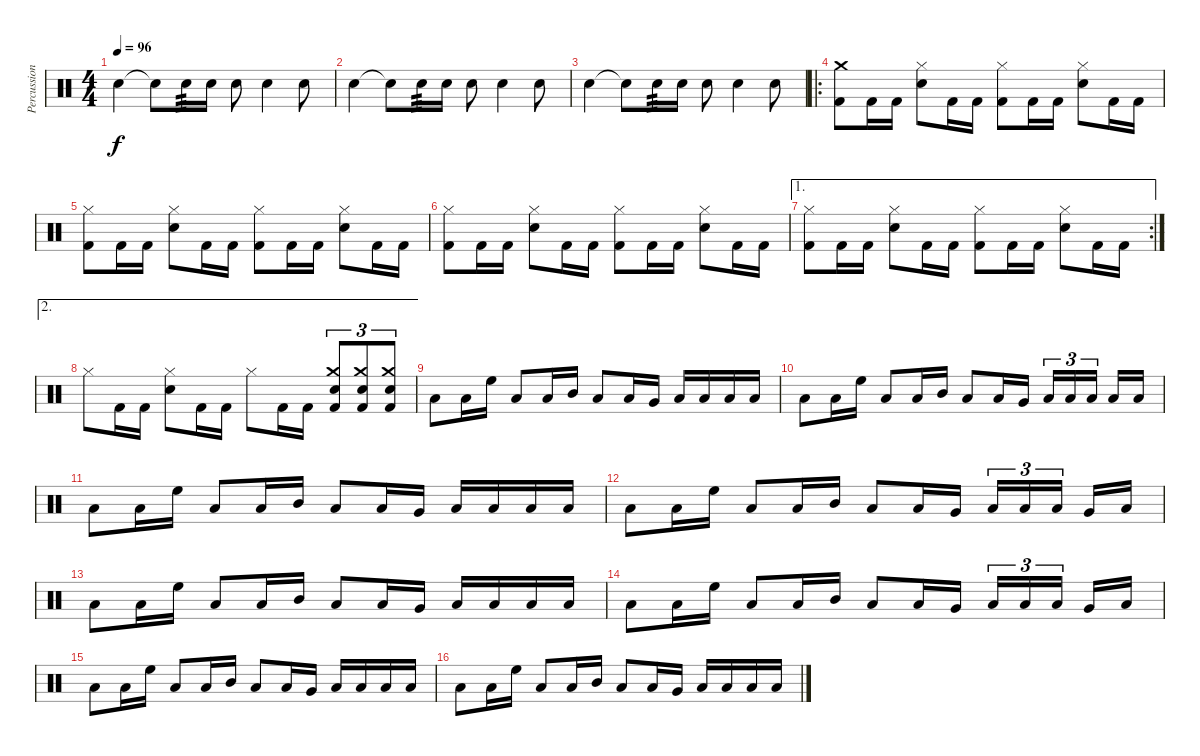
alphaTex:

\track ("Percussion" "Percussion") {instrument percussion}
\staff {score}
\articulation defaults
\ts (4 4)
\tempo 96
\clef neutral
\ks c "Electric Snare (hit)".4{dy f} "Electric Snare (hit)"{t}.8 "Electric Snare (hit)".16{tp 3} "Electric Snare (hit)".16 "Electric Snare (hit)".8 "Electric Snare (hit)".4 "Electric Snare (hit)".8
|
"Electric Snare (hit)".4 "Electric Snare (hit)"{t}.8 "Electric Snare (hit)".16{tp 3} "Electric Snare (hit)".16 "Electric Snare (hit)".8 "Electric Snare (hit)".4 "Electric Snare (hit)".8 |
"Electric Snare (hit)".4 "Electric Snare (hit)"{t}.8 "Electric Snare (hit)".16{tp 3} "Electric Snare (hit)".16 "Electric Snare (hit)".8 "Electric Snare (hit)".4 "Electric Snare (hit)".8 |
\ro
("Crash medium (hit)" "Kick (hit) 2").8 "Kick (hit) 2".16 "Kick (hit) 2".16 ("Electric Snare (hit)" "Hi-Hat (closed)").8 "Kick (hit) 2".16 "Kick (hit) 2".16 ("Hi-Hat (closed)" "Kick (hit) 2").8 "Kick (hit) 2".16 "Kick (hit) 2".16 ("Electric Snare (hit)" "Hi-Hat (closed)").8 "Kick (hit) 2".16 "Kick (hit) 2".16 |
("Hi-Hat (closed)" "Kick (hit) 2").8 "Kick (hit) 2".16 "Kick (hit) 2".16 ("Electric Snare (hit)" "Hi-Hat (closed)").8 "Kick (hit) 2".16 "Kick (hit) 2".16 ("Hi-Hat (closed)" "Kick (hit) 2").8 "Kick (hit) 2".16 "Kick (hit) 2".16 ("Electric Snare (hit)" "Hi-Hat (closed)").8 "Kick (hit) 2".16 "Kick (hit) 2".16 |
("Hi-Hat (closed)" "Kick (hit) 2").8 "Kick (hit) 2".16 "Kick (hit) 2".16 ("Electric Snare (hit)" "Hi-Hat (closed)").8 "Kick (hit) 2".16 "Kick (hit) 2".16 ("Hi-Hat (closed)" "Kick (hit) 2").8 "Kick (hit) 2".16 "Kick (hit) 2".16 ("Electric Snare (hit)" "Hi-Hat (closed)").8 "Kick (hit) 2".16 "Kick (hit) 2".16 |
\ae 1
\rc 2
("Hi-Hat (closed)" "Kick (hit) 2").8 "Kick (hit) 2".16 "Kick (hit) 2".16 ("Electric Snare (hit)" "Hi-Hat (closed)").8 "Kick (hit) 2".16 "Kick (hit) 2".16 ("Hi-Hat (closed)" "Kick (hit) 2").8 "Kick (hit) 2".16 "Kick (hit) 2".16 ("Electric Snare (hit)" "Hi-Hat (closed)").8 "Kick (hit) 2".16 "Kick (hit) 2".16 |
\ae 2 "Hi-Hat (closed)".8 "Kick (hit) 2".16 "Kick (hit) 2".16
("Hi-Hat (closed)" "Electric Snare (hit)").8 "Kick (hit) 2".16 "Kick (hit) 2".16 "Hi-Hat (closed)".8 "Kick (hit) 2".16 "Kick (hit) 2".16 ("Crash medium (hit)" "Electric Snare (hit)" "Kick (hit) 2").8{tu (3 2)} ("Crash medium (hit)" "Electric Snare (hit)" "Kick (hit) 2").8{tu (3 2)} ("Crash medium (hit)" "Electric Snare (hit)" "Kick (hit) 2").8{tu (3 2)} |
"Low Floor Tom (hit)".8 "Low Floor Tom (hit)".16 "High Floor Tom (hit)".16 "Low Floor Tom (hit)".8 "Low Floor Tom (hit)".16 "Mid Tom (hit)".16 "Low Floor Tom (hit)".8 "Low Floor Tom (hit)".16 "Very Low Tom (hit)".16 "Low Floor Tom (hit)".16 "Low Floor Tom (hit)".16 "Low Floor Tom (hit)".16 "Low Floor Tom (hit)".16 |
"Low Floor Tom (hit)".8 "Low Floor Tom (hit)".16 "High Floor Tom (hit)".16 "Low Floor Tom (hit)".8 "Low Floor Tom (hit)".16 "Mid Tom (hit)".16 "Low Floor Tom (hit)".8 "Low Floor Tom (hit)".16 "Very Low Tom (hit)".16 "Low Floor Tom (hit)".16{tu (3 2)} "Low Floor Tom (hit)".16{tu (3 2)} "Low Floor Tom (hit)".16{tu (3 2) beam splitsecondary} "Low Floor Tom (hit)".16 "Low Floor Tom (hit)".16 |
"Low Floor Tom (hit)".8 "Low Floor Tom (hit)".16 "High Floor Tom (hit)".16 "Low Floor Tom (hit)".8 "Low Floor Tom (hit)".16 "Mid Tom (hit)".16 "Low Floor Tom (hit)".8 "Low Floor Tom (hit)".16 "Very Low Tom (hit)".16 "Low Floor Tom (hit)".16 "Low Floor Tom (hit)".16 "Low Floor Tom (hit)".16 "Low Floor Tom (hit)".16 |
"Low Floor Tom (hit)".8 "Low Floor Tom (hit)".16 "High Floor Tom (hit)".16 "Low Floor Tom (hit)".8 "Low Floor Tom (hit)".16 "Mid Tom (hit)".16 "Low Floor Tom (hit)".8 "Low Floor Tom (hit)".16 "Very Low Tom (hit)".16 "Low Floor Tom (hit)".16{tu (3 2)} "Low Floor Tom (hit)".16{tu (3 2)} "Low Floor Tom (hit)".16{tu (3 2) beam splitsecondary} "Very Low Tom (hit)".16 "Low Floor Tom (hit)".16 |
"Low Floor Tom (hit)".8 "Low Floor Tom (hit)".16 "High Floor Tom (hit)".16 "Low Floor Tom (hit)".8 "Low Floor Tom (hit)".16 "Mid Tom (hit)".16 "Low Floor Tom (hit)".8 "Low Floor Tom (hit)".16 "Very Low Tom (hit)".16 "Low Floor Tom (hit)".16 "Low Floor Tom (hit)".16 "Low Floor Tom (hit)".16 "Low Floor Tom (hit)".16 |
"Low Floor Tom (hit)".8 "Low Floor Tom (hit)".16 "High Floor Tom (hit)".16 "Low Floor Tom (hit)".8 "Low Floor Tom (hit)".16 "Mid Tom (hit)".16 "Low Floor Tom (hit)".8 "Low Floor Tom (hit)".16 "Very Low Tom (hit)".16 "Low Floor Tom (hit)".16{tu (3 2)} "Low Floor Tom (hit)".16{tu (3 2)} "Low Floor Tom (hit)".16{tu (3 2) beam splitsecondary} "Very Low Tom (hit)".16 "Low Floor Tom (hit)".16 |
"Low Floor Tom (hit)".8 "Low Floor Tom (hit)".16 "High Floor Tom (hit)".16 "Low Floor Tom (hit)".8 "Low Floor Tom (hit)".16 "Mid Tom (hit)".16 "Low Floor Tom (hit)".8 "Low Floor Tom (hit)".16 "Very Low Tom (hit)".16 "Low Floor Tom (hit)".16 "Low Floor Tom (hit)".16 "Low Floor Tom (hit)".16 "Low Floor Tom (hit)".16 |
"Low Floor Tom (hit)".8 "Low Floor Tom (hit)".16 "High Floor Tom (hit)".16 "Low Floor Tom (hit)".8 "Low Floor Tom (hit)".16 "Mid Tom (hit)".16 "Low Floor Tom (hit)".8 "Low Floor Tom (hit)".16 "Very Low Tom (hit)".16 "Low Floor Tom (hit)".16 "Low Floor Tom (hit)".16 "Low Floor Tom (hit)".16 "Low Floor Tom (hit)".16
